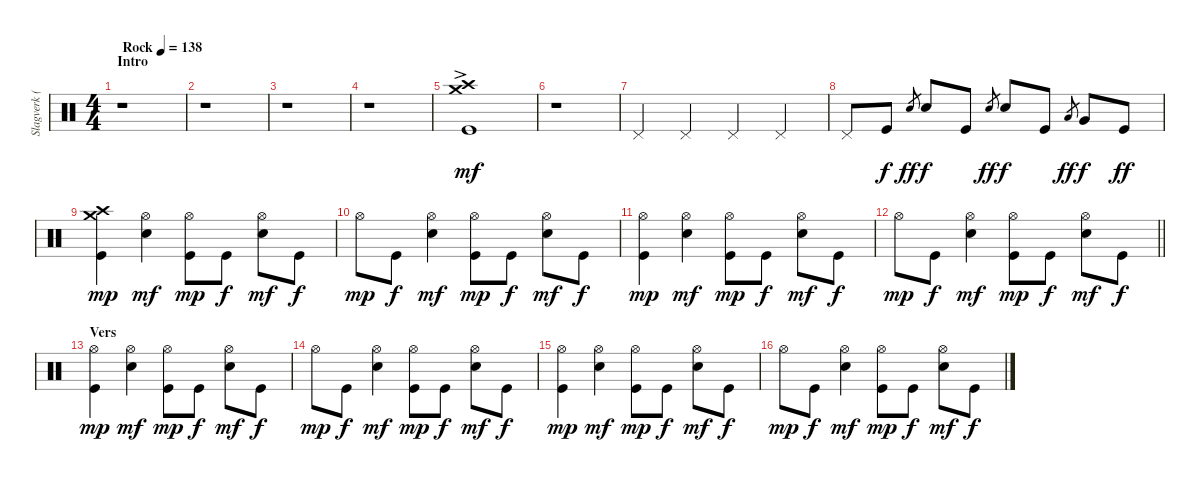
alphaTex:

\track ("Slagverk (Jan Kristiansen)" "Slagverk (") {instrument percussion}
\staff {score}
\articulation defaults
\ts (4 4)
\section ("" "Intro")
\tempo (138 "Rock")
\clef neutral
\ks c
r.1{dy mf} |
r.1 |
r.1 |
r.1 |
("Crash high (hit)" "Crash medium (hit)" "Kick (hit)"{ac}).1 |
r.1 |
"Pedal Hi-Hat (hit)".4 "Pedal Hi-Hat (hit)".4 "Pedal Hi-Hat (hit)".4 "Pedal Hi-Hat (hit)".4 |
"Pedal Hi-Hat (hit)".8 "Kick (hit)".8{dy f} "Snare (hit) 2".8{gr dy ff} "Snare (hit) 2".8{dy f} "Kick (hit)".8 "Snare (hit) 2".8{gr dy ff} "Snare (hit) 2".8{dy f} "Kick (hit)".8 "Low Tom (hit)".8{gr dy ff} "Very Low Tom (hit)".8{dy f} "Kick (hit)".8{dy ff} |
("Crash high (hit)" "Crash medium (hit)" "Kick (hit)").4{dy mp} ("Hi-Hat (open)" "Snare (hit) 2").4{dy mf} ("Hi-Hat (open)" "Kick (hit)").8{dy mp} "Kick (hit)".8{dy f} ("Hi-Hat (open)" "Snare (hit) 2").8{dy mf} "Kick (hit)".8{dy f} |
"Hi-Hat (open)".8{dy mp} "Kick (hit)".8{dy f} ("Hi-Hat (open)" "Snare (hit) 2").4{dy mf} ("Hi-Hat (open)" "Kick (hit)").8{dy mp} "Kick (hit)".8{dy f} ("Hi-Hat (open)" "Snare (hit) 2").8{dy mf} "Kick (hit)".8{dy f} |
("Hi-Hat (open)" "Kick (hit)").4{dy mp} ("Hi-Hat (open)" "Snare (hit) 2").4{dy mf} ("Hi-Hat (open)" "Kick (hit)").8{dy mp} "Kick (hit)".8{dy f} ("Hi-Hat (open)" "Snare (hit) 2").8{dy mf} "Kick (hit)".8{dy f} |
\barLineRight lightlight "Hi-Hat (open)".8{dy mp} "Kick (hit)".8{dy f}
("Hi-Hat (open)" "Snare (hit) 2").4{dy mf} ("Hi-Hat (open)" "Kick (hit)").8{dy mp} "Kick (hit)".8{dy f} ("Hi-Hat (open)" "Snare (hit) 2").8{dy mf} "Kick (hit)".8{dy f} |
\section ("" "Vers")
("Hi-Hat (open)" "Kick (hit)").4{dy mp} ("Hi-Hat (open)" "Snare (hit) 2").4{dy mf} ("Hi-Hat (open)" "Kick (hit)").8{dy mp} "Kick (hit)".8{dy f} ("Hi-Hat (open)" "Snare (hit) 2").8{dy mf} "Kick (hit)".8{dy f} |
"Hi-Hat (open)".8{dy mp} "Kick (hit)".8{dy f} ("Hi-Hat (open)" "Snare (hit) 2").4{dy mf} ("Hi-Hat (open)" "Kick (hit)").8{dy mp} "Kick (hit)".8{dy f} ("Hi-Hat (open)" "Snare (hit) 2").8{dy mf} "Kick (hit)".8{dy f} |
("Hi-Hat (open)" "Kick (hit)").4{dy mp} ("Hi-Hat (open)" "Snare (hit) 2").4{dy mf} ("Hi-Hat (open)" "Kick (hit)").8{dy mp} "Kick (hit)".8{dy f} ("Hi-Hat (open)" "Snare (hit) 2").8{dy mf} "Kick (hit)".8{dy f} |
"Hi-Hat (open)".8{dy mp} "Kick (hit)".8{dy f} ("Hi-Hat (open)" "Snare (hit) 2").4{dy mf} ("Hi-Hat (open)" "Kick (hit)").8{dy mp} "Kick (hit)".8{dy f} ("Hi-Hat (open)" "Snare (hit) 2").8{dy mf} "Kick (hit)".8{dy f}
